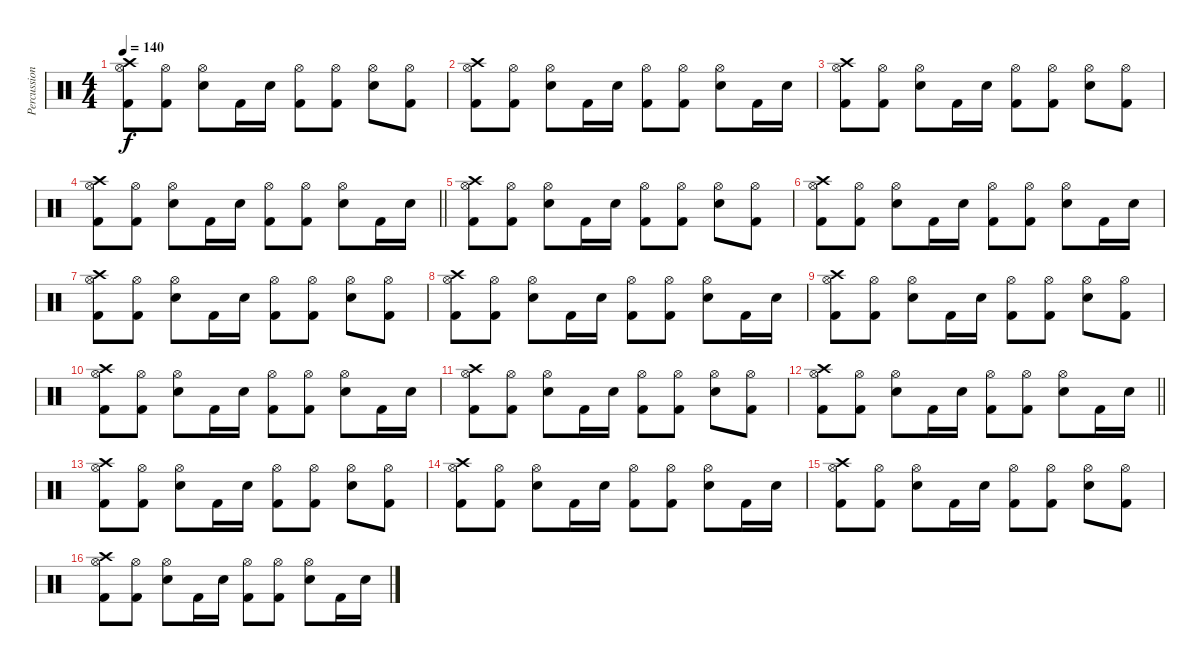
\track ("Percussion" "Percussion") {instrument percussion}
\staff {score}
\articulation defaults
\ts (4 4)
\tempo 140
\clef neutral
\ks c
("Hi-Hat (open)" "Crash high (hit)" "Kick (hit) 2").8{dy f} ("Hi-Hat (open)" "Kick (hit) 2").8 ("Hi-Hat (open)" "Snare (hit) 2").8 "Kick (hit) 2".16 "Snare (hit) 2".16 ("Hi-Hat (open)" "Kick (hit) 2").8 ("Hi-Hat (open)" "Kick (hit) 2").8 ("Hi-Hat (open)" "Snare (hit) 2").8 ("Hi-Hat (open)" "Kick (hit) 2").8 |
("Hi-Hat (open)" "Crash high (hit)" "Kick (hit) 2").8 ("Hi-Hat (open)" "Kick (hit) 2").8 ("Hi-Hat (open)" "Snare (hit) 2").8 "Kick (hit) 2".16 "Snare (hit) 2".16 ("Hi-Hat (open)" "Kick (hit) 2").8 ("Hi-Hat (open)" "Kick (hit) 2").8 ("Hi-Hat (open)" "Snare (hit) 2").8 "Kick (hit) 2".16 "Snare (hit) 2".16 |
("Hi-Hat (open)" "Crash high (hit)" "Kick (hit) 2").8 ("Hi-Hat (open)" "Kick (hit) 2").8 ("Hi-Hat (open)" "Snare (hit) 2").8 "Kick (hit) 2".16 "Snare (hit) 2".16 ("Hi-Hat (open)" "Kick (hit) 2").8 ("Hi-Hat (open)" "Kick (hit) 2").8 ("Hi-Hat (open)" "Snare (hit) 2").8 ("Hi-Hat (open)" "Kick (hit) 2").8 |
\barLineRight lightlight
("Hi-Hat (open)" "Crash high (hit)" "Kick (hit) 2").8 ("Hi-Hat (open)" "Kick (hit) 2").8 ("Hi-Hat (open)" "Snare (hit) 2").8 "Kick (hit) 2".16 "Snare (hit) 2".16 ("Hi-Hat (open)" "Kick (hit) 2").8 ("Hi-Hat (open)" "Kick (hit) 2").8 ("Hi-Hat (open)" "Snare (hit) 2").8 "Kick (hit) 2".16 "Snare (hit) 2".16 |
("Hi-Hat (open)" "Crash high (hit)" "Kick (hit) 2").8 ("Hi-Hat (open)" "Kick (hit) 2").8 ("Hi-Hat (open)" "Snare (hit) 2").8 "Kick (hit) 2".16 "Snare (hit) 2".16 ("Hi-Hat (open)" "Kick (hit) 2").8 ("Hi-Hat (open)" "Kick (hit) 2").8 ("Hi-Hat (open)" "Snare (hit) 2").8 ("Hi-Hat (open)" "Kick (hit) 2").8 |
("Hi-Hat (open)" "Crash high (hit)" "Kick (hit) 2").8 ("Hi-Hat (open)" "Kick (hit) 2").8 ("Hi-Hat (open)" "Snare (hit) 2").8 "Kick (hit) 2".16 "Snare (hit) 2".16 ("Hi-Hat (open)" "Kick (hit) 2").8 ("Hi-Hat (open)" "Kick (hit) 2").8 ("Hi-Hat (open)" "Snare (hit) 2").8 "Kick (hit) 2".16 "Snare (hit) 2".16 |
("Hi-Hat (open)" "Crash high (hit)" "Kick (hit) 2").8 ("Hi-Hat (open)" "Kick (hit) 2").8 ("Hi-Hat (open)" "Snare (hit) 2").8 "Kick (hit) 2".16 "Snare (hit) 2".16 ("Hi-Hat (open)" "Kick (hit) 2").8 ("Hi-Hat (open)" "Kick (hit) 2").8 ("Hi-Hat (open)" "Snare (hit) 2").8 ("Hi-Hat (open)" "Kick (hit) 2").8 |
("Hi-Hat (open)" "Crash high (hit)" "Kick (hit) 2").8 ("Hi-Hat (open)" "Kick (hit) 2").8 ("Hi-Hat (open)" "Snare (hit) 2").8 "Kick (hit) 2".16 "Snare (hit) 2".16 ("Hi-Hat (open)" "Kick (hit) 2").8 ("Hi-Hat (open)" "Kick (hit) 2").8 ("Hi-Hat (open)" "Snare (hit) 2").8 "Kick (hit) 2".16 "Snare (hit) 2".16 |
("Hi-Hat (open)" "Crash high (hit)" "Kick (hit) 2").8 ("Hi-Hat (open)" "Kick (hit) 2").8 ("Hi-Hat (open)" "Snare (hit) 2").8 "Kick (hit) 2".16 "Snare (hit) 2".16 ("Hi-Hat (open)" "Kick (hit) 2").8 ("Hi-Hat (open)" "Kick (hit) 2").8 ("Hi-Hat (open)" "Snare (hit) 2").8 ("Hi-Hat (open)" "Kick (hit) 2").8 |
("Hi-Hat (open)" "Crash high (hit)" "Kick (hit) 2").8 ("Hi-Hat (open)" "Kick (hit) 2").8 ("Hi-Hat (open)" "Snare (hit) 2").8 "Kick (hit) 2".16 "Snare (hit) 2".16 ("Hi-Hat (open)" "Kick (hit) 2").8 ("Hi-Hat (open)" "Kick (hit) 2").8 ("Hi-Hat (open)" "Snare (hit) 2").8 "Kick (hit) 2".16 "Snare (hit) 2".16 |
("Hi-Hat (open)" "Crash high (hit)" "Kick (hit) 2").8 ("Hi-Hat (open)" "Kick (hit) 2").8 ("Hi-Hat (open)" "Snare (hit) 2").8 "Kick (hit) 2".16 "Snare (hit) 2".16 ("Hi-Hat (open)" "Kick (hit) 2").8 ("Hi-Hat (open)" "Kick (hit) 2").8 ("Hi-Hat (open)" "Snare (hit) 2").8 ("Hi-Hat (open)" "Kick (hit) 2").8 |
\barLineRight lightlight
("Hi-Hat (open)" "Crash high (hit)" "Kick (hit) 2").8 ("Hi-Hat (open)" "Kick (hit) 2").8 ("Hi-Hat (open)" "Snare (hit) 2").8 "Kick (hit) 2".16 "Snare (hit) 2".16 ("Hi-Hat (open)" "Kick (hit) 2").8 ("Hi-Hat (open)" "Kick (hit) 2").8 ("Hi-Hat (open)" "Snare (hit) 2").8 "Kick (hit) 2".16 "Snare (hit) 2".16 |
("Hi-Hat (open)" "Crash high (hit)" "Kick (hit) 2").8 ("Hi-Hat (open)" "Kick (hit) 2").8 ("Hi-Hat (open)" "Snare (hit) 2").8 "Kick (hit) 2".16 "Snare (hit) 2".16 ("Hi-Hat (open)" "Kick (hit) 2").8 ("Hi-Hat (open)" "Kick (hit) 2").8 ("Hi-Hat (open)" "Snare (hit) 2").8 ("Hi-Hat (open)" "Kick (hit) 2").8 |
("Hi-Hat (open)" "Crash high (hit)" "Kick (hit) 2").8 ("Hi-Hat (open)" "Kick (hit) 2").8 ("Hi-Hat (open)" "Snare (hit) 2").8 "Kick (hit) 2".16 "Snare (hit) 2".16 ("Hi-Hat (open)" "Kick (hit) 2").8 ("Hi-Hat (open)" "Kick (hit) 2").8 ("Hi-Hat (open)" "Snare (hit) 2").8 "Kick (hit) 2".16 "Snare (hit) 2".16 |
("Hi-Hat (open)" "Crash high (hit)" "Kick (hit) 2").8 ("Hi-Hat (open)" "Kick (hit) 2").8 ("Hi-Hat (open)" "Snare (hit) 2").8 "Kick (hit) 2".16 "Snare (hit) 2".16 ("Hi-Hat (open)" "Kick (hit) 2").8 ("Hi-Hat (open)" "Kick (hit) 2").8 ("Hi-Hat (open)" "Snare (hit) 2").8 ("Hi-Hat (open)" "Kick (hit) 2").8 |
("Hi-Hat (open)" "Crash high (hit)" "Kick (hit) 2").8 ("Hi-Hat (open)" "Kick (hit) 2").8 ("Hi-Hat (open)" "Snare (hit) 2").8 "Kick (hit) 2".16 "Snare (hit) 2".16 ("Hi-Hat (open)" "Kick (hit) 2").8 ("Hi-Hat (open)" "Kick (hit) 2").8 ("Hi-Hat (open)" "Snare (hit) 2").8 "Kick (hit) 2".16 "Snare (hit) 2".16
